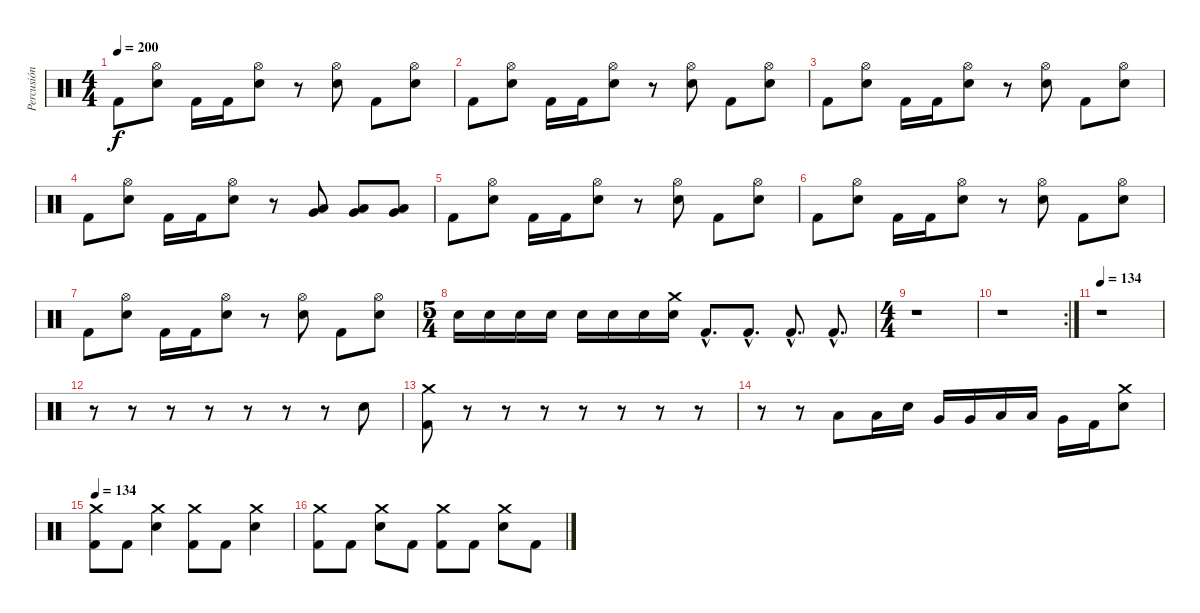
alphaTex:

\track ("Percusión" "Percusión") {instrument percussion}
\staff {score}
\articulation defaults
\ts (4 4)
\tempo 200
\clef neutral
\ks c "Kick (hit) 2".8{dy f}
("Electric Snare (hit)" "Hi-Hat (open)").8 "Kick (hit) 2".16 "Kick (hit) 2".16 ("Electric Snare (hit)" "Hi-Hat (open)").8 r.8 ("Electric Snare (hit)" "Hi-Hat (open)").8 "Kick (hit) 2".8 ("Electric Snare (hit)" "Hi-Hat (open)").8 |
"Kick (hit) 2".8 ("Electric Snare (hit)" "Hi-Hat (open)").8 "Kick (hit) 2".16 "Kick (hit) 2".16 ("Electric Snare (hit)" "Hi-Hat (open)").8 r.8 ("Electric Snare (hit)" "Hi-Hat (open)").8 "Kick (hit) 2".8 ("Electric Snare (hit)" "Hi-Hat (open)").8 |
"Kick (hit) 2".8 ("Electric Snare (hit)" "Hi-Hat (open)").8 "Kick (hit) 2".16 "Kick (hit) 2".16 ("Electric Snare (hit)" "Hi-Hat (open)").8 r.8 ("Electric Snare (hit)" "Hi-Hat (open)").8 "Kick (hit) 2".8 ("Electric Snare (hit)" "Hi-Hat (open)").8 |
"Kick (hit) 2".8 ("Electric Snare (hit)" "Hi-Hat (open)").8 "Kick (hit) 2".16 "Kick (hit) 2".16 ("Electric Snare (hit)" "Hi-Hat (open)").8 r.8 ("Low Floor Tom (hit)" "Very Low Tom (hit)").8 ("Low Floor Tom (hit)" "Very Low Tom (hit)").8 ("Low Floor Tom (hit)" "Very Low Tom (hit)").8 |
"Kick (hit) 2".8 ("Electric Snare (hit)" "Hi-Hat (open)").8 "Kick (hit) 2".16 "Kick (hit) 2".16 ("Electric Snare (hit)" "Hi-Hat (open)").8 r.8 ("Electric Snare (hit)" "Hi-Hat (open)").8 "Kick (hit) 2".8 ("Electric Snare (hit)" "Hi-Hat (open)").8 |
"Kick (hit) 2".8 ("Electric Snare (hit)" "Hi-Hat (open)").8 "Kick (hit) 2".16 "Kick (hit) 2".16 ("Electric Snare (hit)" "Hi-Hat (open)").8 r.8 ("Electric Snare (hit)" "Hi-Hat (open)").8 "Kick (hit) 2".8 ("Electric Snare (hit)" "Hi-Hat (open)").8 |
"Kick (hit) 2".8 ("Electric Snare (hit)" "Hi-Hat (open)").8 "Kick (hit) 2".16 "Kick (hit) 2".16 ("Electric Snare (hit)" "Hi-Hat (open)").8 r.8 ("Electric Snare (hit)" "Hi-Hat (open)").8 "Kick (hit) 2".8 ("Electric Snare (hit)" "Hi-Hat (open)").8 |
\ts (5 4)
"Electric Snare (hit)".16 "Electric Snare (hit)".16 "Electric Snare (hit)".16 "Electric Snare (hit)".16 "Electric Snare (hit)".16 "Electric Snare (hit)".16 "Electric Snare (hit)".16 ("Electric Snare (hit)" "Crash medium (hit)").16 "Kick (hit) 2"{hac}.8{d} "Kick (hit) 2"{hac}.8{d} "Kick (hit) 2"{hac}.8{d} "Kick (hit) 2"{hac}.8{d} |
\ts (4 4)
r.1 |
\rc 2
r.1 |
\tempo 134
r.1 |
r.8 r.8 r.8 r.8 r.8 r.8 r.8 "Electric Snare (hit)".8 |
("Kick (hit) 2" "Crash medium (hit)").8 r.8 r.8 r.8 r.8 r.8 r.8 r.8 |
r.8 r.8 "Low Floor Tom (hit)".8 "Low Floor Tom (hit)".16 "Electric Snare (hit)".16 "Very Low Tom (hit)".16 "Very Low Tom (hit)".16 "Low Floor Tom (hit)".16 "Low Floor Tom (hit)".16 "Very Low Tom (hit)".16 "Kick (hit) 2".16 ("Electric Snare (hit)" "Crash medium (hit)").8 |
\tempo 134
("Kick (hit) 2" "Crash medium (hit)").8 "Kick (hit) 2".8 ("Electric Snare (hit)" "Crash medium (hit)").4 ("Kick (hit) 2" "Crash medium (hit)").8 "Kick (hit) 2".8 ("Electric Snare (hit)" "Crash medium (hit)").4 |
("Kick (hit) 2" "Crash medium (hit)").8 "Kick (hit) 2".8 ("Electric Snare (hit)" "Crash medium (hit)").8 "Kick (hit) 2".8 ("Kick (hit) 2" "Crash medium (hit)").8 "Kick (hit) 2".8 ("Electric Snare (hit)" "Crash medium (hit)").8 "Kick (hit) 2".8
